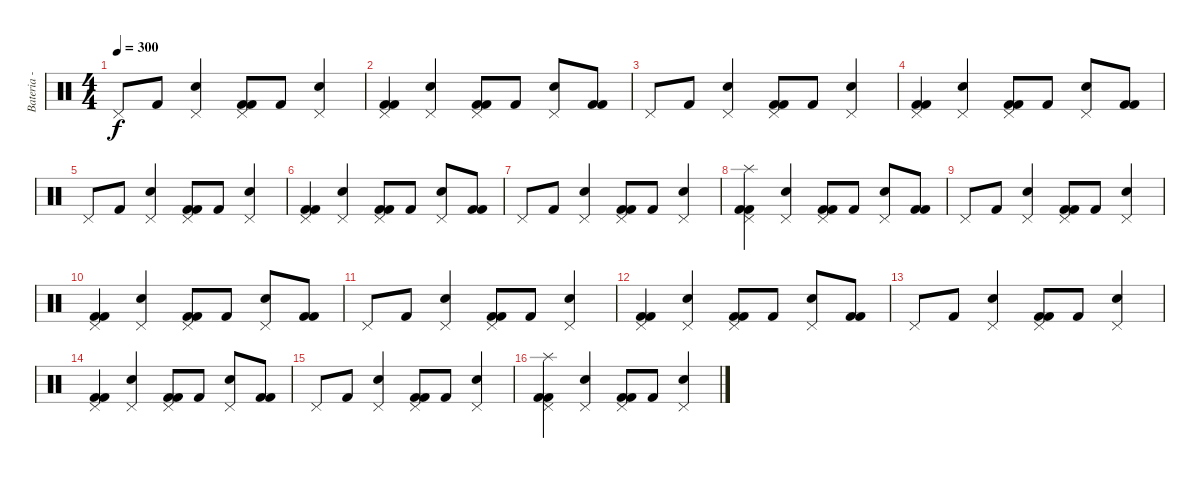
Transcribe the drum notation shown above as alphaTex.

\track ("Bateria - Larzon" "Bateria - ") {instrument percussion}
\staff {score}
\articulation defaults
\ts (4 4)
\tempo 300
\clef neutral
\ks c "Pedal Hi-Hat (hit)".8{dy f} "Kick (hit) 2".8
("Snare (hit) 2" "Pedal Hi-Hat (hit)").4 ("Kick (hit) 2" "Kick (hit) 2" "Pedal Hi-Hat (hit)").8 "Kick (hit) 2".8 ("Snare (hit) 2" "Pedal Hi-Hat (hit)").4 |
("Kick (hit) 2" "Kick (hit) 2" "Pedal Hi-Hat (hit)").4 ("Snare (hit) 2" "Pedal Hi-Hat (hit)").4 ("Kick (hit) 2" "Kick (hit) 2" "Pedal Hi-Hat (hit)").8 "Kick (hit) 2".8 ("Snare (hit) 2" "Pedal Hi-Hat (hit)").8 ("Kick (hit) 2" "Kick (hit) 2").8 |
"Pedal Hi-Hat (hit)".8 "Kick (hit) 2".8 ("Snare (hit) 2" "Pedal Hi-Hat (hit)").4 ("Kick (hit) 2" "Kick (hit) 2" "Pedal Hi-Hat (hit)").8 "Kick (hit) 2".8 ("Snare (hit) 2" "Pedal Hi-Hat (hit)").4 |
("Kick (hit) 2" "Kick (hit) 2" "Pedal Hi-Hat (hit)").4 ("Snare (hit) 2" "Pedal Hi-Hat (hit)").4 ("Kick (hit) 2" "Kick (hit) 2" "Pedal Hi-Hat (hit)").8 "Kick (hit) 2".8 ("Snare (hit) 2" "Pedal Hi-Hat (hit)").8 ("Kick (hit) 2" "Kick (hit) 2").8 |
"Pedal Hi-Hat (hit)".8 "Kick (hit) 2".8 ("Snare (hit) 2" "Pedal Hi-Hat (hit)").4 ("Kick (hit) 2" "Kick (hit) 2" "Pedal Hi-Hat (hit)").8 "Kick (hit) 2".8 ("Snare (hit) 2" "Pedal Hi-Hat (hit)").4 |
("Kick (hit) 2" "Kick (hit) 2" "Pedal Hi-Hat (hit)").4 ("Snare (hit) 2" "Pedal Hi-Hat (hit)").4 ("Kick (hit) 2" "Kick (hit) 2" "Pedal Hi-Hat (hit)").8 "Kick (hit) 2".8 ("Snare (hit) 2" "Pedal Hi-Hat (hit)").8 ("Kick (hit) 2" "Kick (hit) 2").8 |
"Pedal Hi-Hat (hit)".8 "Kick (hit) 2".8 ("Snare (hit) 2" "Pedal Hi-Hat (hit)").4 ("Kick (hit) 2" "Kick (hit) 2" "Pedal Hi-Hat (hit)").8 "Kick (hit) 2".8 ("Snare (hit) 2" "Pedal Hi-Hat (hit)").4 |
("Kick (hit) 2" "Kick (hit) 2" "Pedal Hi-Hat (hit)" "Splash (hit)").4 ("Snare (hit) 2" "Pedal Hi-Hat (hit)").4 ("Kick (hit) 2" "Kick (hit) 2" "Pedal Hi-Hat (hit)").8 "Kick (hit) 2".8 ("Snare (hit) 2" "Pedal Hi-Hat (hit)").8 ("Kick (hit) 2" "Kick (hit) 2").8 |
"Pedal Hi-Hat (hit)".8 "Kick (hit) 2".8 ("Snare (hit) 2" "Pedal Hi-Hat (hit)").4 ("Kick (hit) 2" "Kick (hit) 2" "Pedal Hi-Hat (hit)").8 "Kick (hit) 2".8 ("Snare (hit) 2" "Pedal Hi-Hat (hit)").4 |
("Kick (hit) 2" "Kick (hit) 2" "Pedal Hi-Hat (hit)").4 ("Snare (hit) 2" "Pedal Hi-Hat (hit)").4 ("Kick (hit) 2" "Kick (hit) 2" "Pedal Hi-Hat (hit)").8 "Kick (hit) 2".8 ("Snare (hit) 2" "Pedal Hi-Hat (hit)").8 ("Kick (hit) 2" "Kick (hit) 2").8 |
"Pedal Hi-Hat (hit)".8 "Kick (hit) 2".8 ("Snare (hit) 2" "Pedal Hi-Hat (hit)").4 ("Kick (hit) 2" "Kick (hit) 2" "Pedal Hi-Hat (hit)").8 "Kick (hit) 2".8 ("Snare (hit) 2" "Pedal Hi-Hat (hit)").4 |
("Kick (hit) 2" "Kick (hit) 2" "Pedal Hi-Hat (hit)").4 ("Snare (hit) 2" "Pedal Hi-Hat (hit)").4 ("Kick (hit) 2" "Kick (hit) 2" "Pedal Hi-Hat (hit)").8 "Kick (hit) 2".8 ("Snare (hit) 2" "Pedal Hi-Hat (hit)").8 ("Kick (hit) 2" "Kick (hit) 2").8 |
"Pedal Hi-Hat (hit)".8 "Kick (hit) 2".8 ("Snare (hit) 2" "Pedal Hi-Hat (hit)").4 ("Kick (hit) 2" "Kick (hit) 2" "Pedal Hi-Hat (hit)").8 "Kick (hit) 2".8 ("Snare (hit) 2" "Pedal Hi-Hat (hit)").4 |
("Kick (hit) 2" "Kick (hit) 2" "Pedal Hi-Hat (hit)").4 ("Snare (hit) 2" "Pedal Hi-Hat (hit)").4 ("Kick (hit) 2" "Kick (hit) 2" "Pedal Hi-Hat (hit)").8 "Kick (hit) 2".8 ("Snare (hit) 2" "Pedal Hi-Hat (hit)").8 ("Kick (hit) 2" "Kick (hit) 2").8 |
"Pedal Hi-Hat (hit)".8 "Kick (hit) 2".8 ("Snare (hit) 2" "Pedal Hi-Hat (hit)").4 ("Kick (hit) 2" "Kick (hit) 2" "Pedal Hi-Hat (hit)").8 "Kick (hit) 2".8 ("Snare (hit) 2" "Pedal Hi-Hat (hit)").4 |
("Kick (hit) 2" "Kick (hit) 2" "Pedal Hi-Hat (hit)" "Splash (hit)").4 ("Snare (hit) 2" "Pedal Hi-Hat (hit)").4 ("Kick (hit) 2" "Kick (hit) 2" "Pedal Hi-Hat (hit)").8 "Kick (hit) 2".8 ("Pedal Hi-Hat (hit)" "Snare (hit) 2").4
